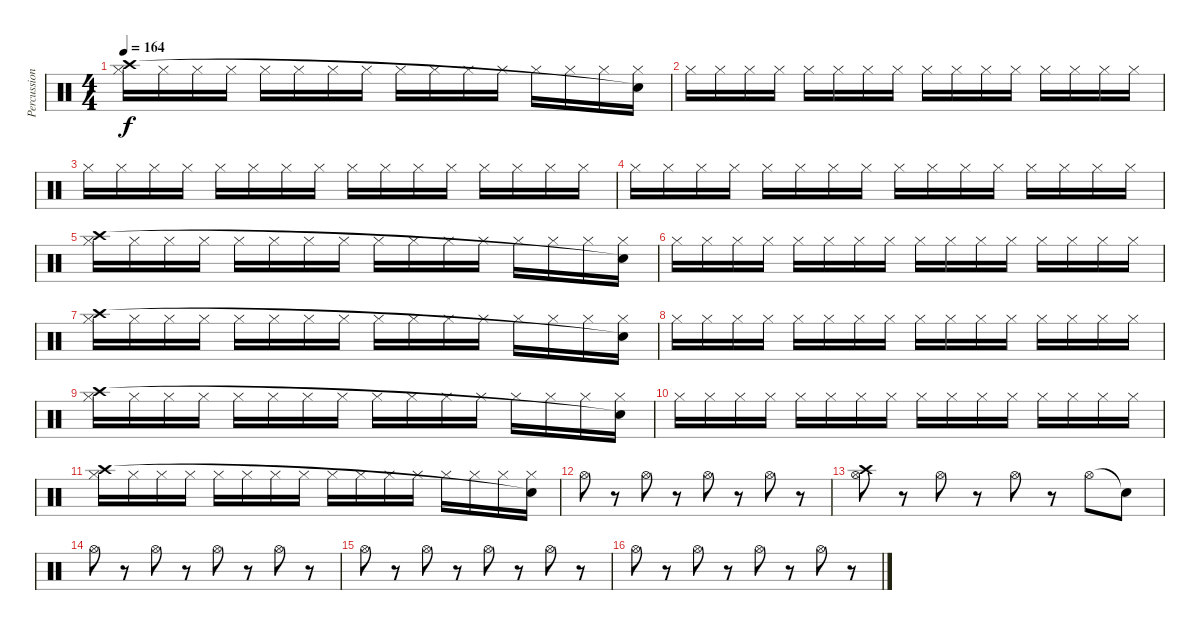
\track ("Percussion" "Percussion") {instrument percussion}
\staff {score}
\articulation defaults
\ts (4 4)
\tempo 164
\clef neutral
\ks c
("Hi-Hat (closed)" "Crash high (hit)").16{dy f} "Hi-Hat (closed)".16 "Hi-Hat (closed)".16 "Hi-Hat (closed)".16 "Hi-Hat (closed)".16 "Hi-Hat (closed)".16 "Hi-Hat (closed)".16 "Hi-Hat (closed)".16 "Hi-Hat (closed)".16 "Hi-Hat (closed)".16 "Hi-Hat (closed)".16 "Hi-Hat (closed)".16 "Hi-Hat (closed)".16 "Hi-Hat (closed)".16 "Hi-Hat (closed)".16 ("Hi-Hat (closed)" "Snare (hit)"{t}).16 |
"Hi-Hat (closed)".16 "Hi-Hat (closed)".16 "Hi-Hat (closed)".16 "Hi-Hat (closed)".16 "Hi-Hat (closed)".16 "Hi-Hat (closed)".16 "Hi-Hat (closed)".16 "Hi-Hat (closed)".16 "Hi-Hat (closed)".16 "Hi-Hat (closed)".16 "Hi-Hat (closed)".16 "Hi-Hat (closed)".16 "Hi-Hat (closed)".16 "Hi-Hat (closed)".16 "Hi-Hat (closed)".16 "Hi-Hat (closed)".16 |
"Hi-Hat (closed)".16 "Hi-Hat (closed)".16 "Hi-Hat (closed)".16 "Hi-Hat (closed)".16 "Hi-Hat (closed)".16 "Hi-Hat (closed)".16 "Hi-Hat (closed)".16 "Hi-Hat (closed)".16 "Hi-Hat (closed)".16 "Hi-Hat (closed)".16 "Hi-Hat (closed)".16 "Hi-Hat (closed)".16 "Hi-Hat (closed)".16 "Hi-Hat (closed)".16 "Hi-Hat (closed)".16 "Hi-Hat (closed)".16 |
"Hi-Hat (closed)".16 "Hi-Hat (closed)".16 "Hi-Hat (closed)".16 "Hi-Hat (closed)".16 "Hi-Hat (closed)".16 "Hi-Hat (closed)".16 "Hi-Hat (closed)".16 "Hi-Hat (closed)".16 "Hi-Hat (closed)".16 "Hi-Hat (closed)".16 "Hi-Hat (closed)".16 "Hi-Hat (closed)".16 "Hi-Hat (closed)".16 "Hi-Hat (closed)".16 "Hi-Hat (closed)".16 "Hi-Hat (closed)".16 |
("Hi-Hat (closed)" "Crash high (hit)").16 "Hi-Hat (closed)".16 "Hi-Hat (closed)".16 "Hi-Hat (closed)".16 "Hi-Hat (closed)".16 "Hi-Hat (closed)".16 "Hi-Hat (closed)".16 "Hi-Hat (closed)".16 "Hi-Hat (closed)".16 "Hi-Hat (closed)".16 "Hi-Hat (closed)".16 "Hi-Hat (closed)".16 "Hi-Hat (closed)".16 "Hi-Hat (closed)".16 "Hi-Hat (closed)".16 ("Hi-Hat (closed)" "Snare (hit)"{t}).16 |
"Hi-Hat (closed)".16 "Hi-Hat (closed)".16 "Hi-Hat (closed)".16 "Hi-Hat (closed)".16 "Hi-Hat (closed)".16 "Hi-Hat (closed)".16 "Hi-Hat (closed)".16 "Hi-Hat (closed)".16 "Hi-Hat (closed)".16 "Hi-Hat (closed)".16 "Hi-Hat (closed)".16 "Hi-Hat (closed)".16 "Hi-Hat (closed)".16 "Hi-Hat (closed)".16 "Hi-Hat (closed)".16 "Hi-Hat (closed)".16 |
("Hi-Hat (closed)" "Crash high (hit)").16 "Hi-Hat (closed)".16 "Hi-Hat (closed)".16 "Hi-Hat (closed)".16 "Hi-Hat (closed)".16 "Hi-Hat (closed)".16 "Hi-Hat (closed)".16 "Hi-Hat (closed)".16 "Hi-Hat (closed)".16 "Hi-Hat (closed)".16 "Hi-Hat (closed)".16 "Hi-Hat (closed)".16 "Hi-Hat (closed)".16 "Hi-Hat (closed)".16 "Hi-Hat (closed)".16 ("Hi-Hat (closed)" "Snare (hit)"{t}).16 |
"Hi-Hat (closed)".16 "Hi-Hat (closed)".16 "Hi-Hat (closed)".16 "Hi-Hat (closed)".16 "Hi-Hat (closed)".16 "Hi-Hat (closed)".16 "Hi-Hat (closed)".16 "Hi-Hat (closed)".16 "Hi-Hat (closed)".16 "Hi-Hat (closed)".16 "Hi-Hat (closed)".16 "Hi-Hat (closed)".16 "Hi-Hat (closed)".16 "Hi-Hat (closed)".16 "Hi-Hat (closed)".16 "Hi-Hat (closed)".16 |
("Hi-Hat (closed)" "Crash high (hit)").16 "Hi-Hat (closed)".16 "Hi-Hat (closed)".16 "Hi-Hat (closed)".16 "Hi-Hat (closed)".16 "Hi-Hat (closed)".16 "Hi-Hat (closed)".16 "Hi-Hat (closed)".16 "Hi-Hat (closed)".16 "Hi-Hat (closed)".16 "Hi-Hat (closed)".16 "Hi-Hat (closed)".16 "Hi-Hat (closed)".16 "Hi-Hat (closed)".16 "Hi-Hat (closed)".16 ("Hi-Hat (closed)" "Snare (hit)"{t}).16 |
"Hi-Hat (closed)".16 "Hi-Hat (closed)".16 "Hi-Hat (closed)".16 "Hi-Hat (closed)".16 "Hi-Hat (closed)".16 "Hi-Hat (closed)".16 "Hi-Hat (closed)".16 "Hi-Hat (closed)".16 "Hi-Hat (closed)".16 "Hi-Hat (closed)".16 "Hi-Hat (closed)".16 "Hi-Hat (closed)".16 "Hi-Hat (closed)".16 "Hi-Hat (closed)".16 "Hi-Hat (closed)".16 "Hi-Hat (closed)".16 |
("Hi-Hat (closed)" "Crash high (hit)").16 "Hi-Hat (closed)".16 "Hi-Hat (closed)".16 "Hi-Hat (closed)".16 "Hi-Hat (closed)".16 "Hi-Hat (closed)".16 "Hi-Hat (closed)".16 "Hi-Hat (closed)".16 "Hi-Hat (closed)".16 "Hi-Hat (closed)".16 "Hi-Hat (closed)".16 "Hi-Hat (closed)".16 "Hi-Hat (closed)".16 "Hi-Hat (closed)".16 "Hi-Hat (closed)".16 ("Hi-Hat (closed)" "Snare (hit)"{t}).16 |
"Hi-Hat (open)".8 r.8 "Hi-Hat (open)".8 r.8 "Hi-Hat (open)".8 r.8 "Hi-Hat (open)".8 r.8 |
("Hi-Hat (open)" "Crash high (hit)").8 r.8 "Hi-Hat (open)".8 r.8 "Hi-Hat (open)".8 r.8 "Hi-Hat (open)".8 "Snare (hit)"{t}.8 |
"Hi-Hat (open)".8 r.8 "Hi-Hat (open)".8 r.8 "Hi-Hat (open)".8 r.8 "Hi-Hat (open)".8 r.8 |
"Hi-Hat (open)".8 r.8 "Hi-Hat (open)".8 r.8 "Hi-Hat (open)".8 r.8 "Hi-Hat (open)".8 r.8 |
"Hi-Hat (open)".8 r.8 "Hi-Hat (open)".8 r.8 "Hi-Hat (open)".8 r.8 "Hi-Hat (open)".8 r.8
